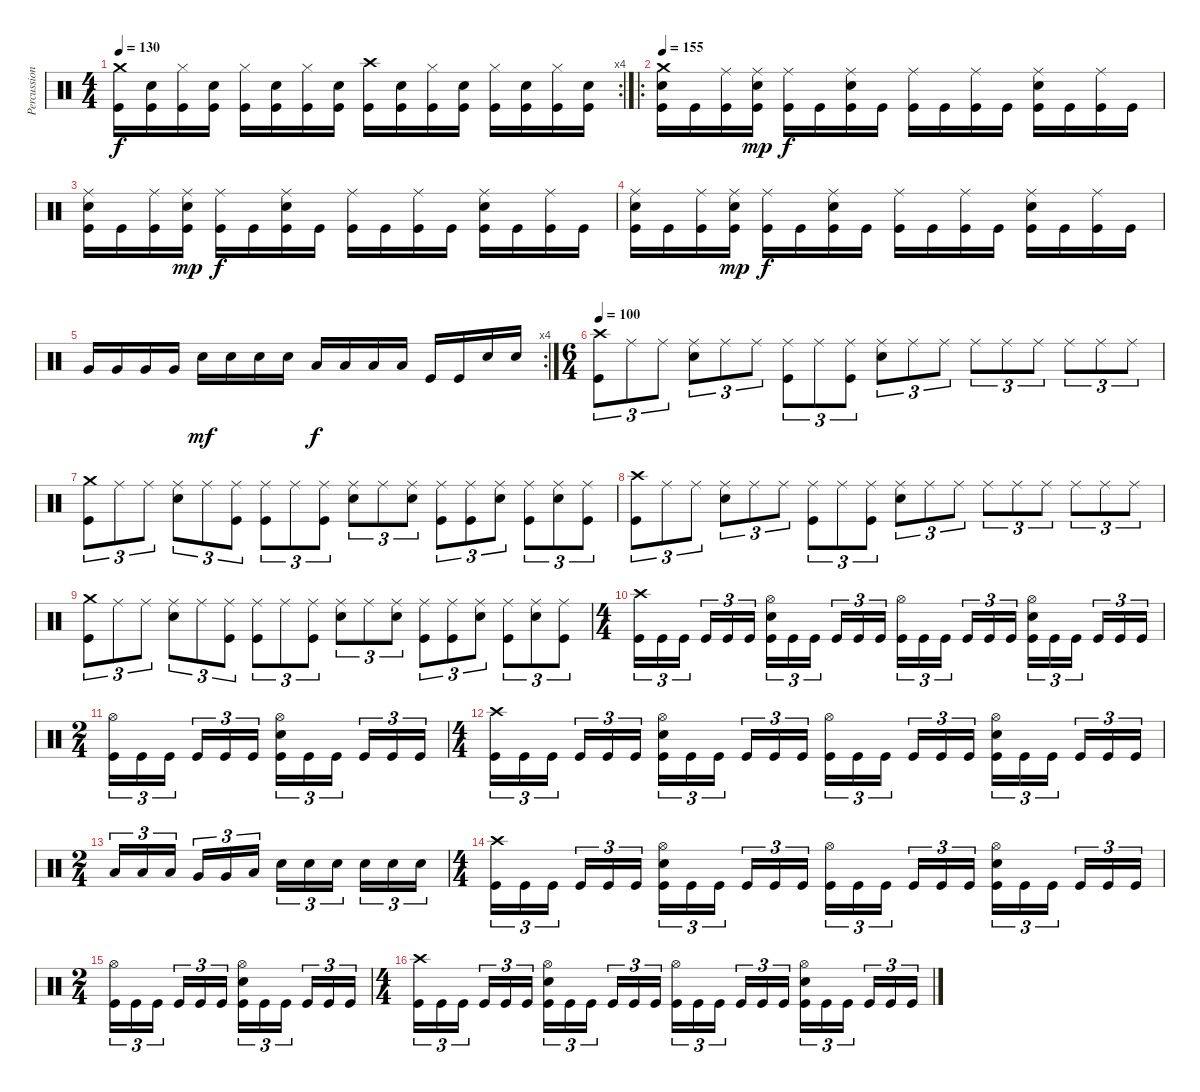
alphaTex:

\track ("Percussion" "Percussion") {instrument percussion}
\staff {score}
\articulation defaults
\rc 4
\ts (4 4)
\tempo 130
\clef neutral
\ks c
("Crash medium (hit)" "Kick (hit)").16{dy f} ("Kick (hit)" "Snare (hit) 2").16 ("Hi-Hat (closed)" "Kick (hit)").16 ("Kick (hit)" "Snare (hit) 2").16 ("Hi-Hat (closed)" "Kick (hit)").16 ("Kick (hit)" "Snare (hit) 2").16 ("Hi-Hat (closed)" "Kick (hit)").16 ("Kick (hit)" "Snare (hit) 2").16 ("Crash high (hit)" "Kick (hit)").16 ("Kick (hit)" "Snare (hit) 2").16 ("Hi-Hat (closed)" "Kick (hit)").16 ("Kick (hit)" "Snare (hit) 2").16 ("Hi-Hat (closed)" "Kick (hit)").16 ("Kick (hit)" "Snare (hit) 2").16 ("Hi-Hat (closed)" "Kick (hit)").16 ("Kick (hit)" "Snare (hit) 2").16 |
\ro
\tempo 155
("Crash medium (hit)" "Kick (hit)" "Snare (hit) 2").16 "Kick (hit)".16 ("Ride (middle)" "Kick (hit)").16 ("Ride (middle)" "Kick (hit)" "Snare (hit) 2").16{dy mp} ("Ride (middle)" "Kick (hit)").16{dy f} "Kick (hit)".16 ("Ride (middle)" "Kick (hit)" "Snare (hit) 2").16 "Kick (hit)".16 ("Ride (middle)" "Kick (hit)").16 "Kick (hit)".16 ("Ride (middle)" "Kick (hit)").16 "Kick (hit)".16 ("Ride (middle)" "Kick (hit)" "Snare (hit) 2").16 "Kick (hit)".16 ("Ride (middle)" "Kick (hit)").16 "Kick (hit)".16 |
("Ride (middle)" "Kick (hit)" "Snare (hit) 2").16 "Kick (hit)".16 ("Ride (middle)" "Kick (hit)").16 ("Ride (middle)" "Kick (hit)" "Snare (hit) 2").16{dy mp} ("Ride (middle)" "Kick (hit)").16{dy f} "Kick (hit)".16 ("Ride (middle)" "Kick (hit)" "Snare (hit) 2").16 "Kick (hit)".16 ("Ride (middle)" "Kick (hit)").16 "Kick (hit)".16 ("Ride (middle)" "Kick (hit)").16 "Kick (hit)".16 ("Ride (middle)" "Kick (hit)" "Snare (hit) 2").16 "Kick (hit)".16 ("Ride (middle)" "Kick (hit)").16 "Kick (hit)".16 |
("Ride (middle)" "Kick (hit)" "Snare (hit) 2").16 "Kick (hit)".16 ("Ride (middle)" "Kick (hit)").16 ("Ride (middle)" "Kick (hit)" "Snare (hit) 2").16{dy mp} ("Ride (middle)" "Kick (hit)").16{dy f} "Kick (hit)".16 ("Ride (middle)" "Kick (hit)" "Snare (hit) 2").16 "Kick (hit)".16 ("Ride (middle)" "Kick (hit)").16 "Kick (hit)".16 ("Ride (middle)" "Kick (hit)").16 "Kick (hit)".16 ("Ride (middle)" "Kick (hit)" "Snare (hit) 2").16 "Kick (hit)".16 ("Ride (middle)" "Kick (hit)").16 "Kick (hit)".16 |
\rc 4 "Very Low Tom (hit)".16 "Very Low Tom (hit)".16 "Very Low Tom (hit)".16 "Very Low Tom (hit)".16 "Snare (hit) 2".16{dy mf} "Snare (hit) 2".16 "Snare (hit) 2".16 "Snare (hit) 2".16 "Low Floor Tom (hit)".16{dy f} "Low Floor Tom (hit)".16 "Low Floor Tom (hit)".16 "Low Floor Tom (hit)".16 "Kick (hit)".16 "Kick (hit)".16 "Snare (hit) 2".16 "Snare (hit) 2".16
|
\ts (6 4)
\tempo 100
("Crash high (hit)" "Kick (hit)").8{tu (3 2)} "Ride (middle)".8{tu (3 2)} "Ride (middle)".8{tu (3 2)} ("Ride (middle)" "Snare (hit) 2").8{tu (3 2)} "Ride (middle)".8{tu (3 2)} "Ride (middle)".8{tu (3 2)} ("Ride (middle)" "Kick (hit)").8{tu (3 2)} "Ride (middle)".8{tu (3 2)} ("Ride (middle)" "Kick (hit)").8{tu (3 2)} ("Ride (middle)" "Snare (hit) 2").8{tu (3 2)} "Ride (middle)".8{tu (3 2)} "Ride (middle)".8{tu (3 2)} "Ride (middle)".8{tu (3 2)} "Ride (middle)".8{tu (3 2)} "Ride (middle)".8{tu (3 2)} "Ride (middle)".8{tu (3 2)} "Ride (middle)".8{tu (3 2)} "Ride (middle)".8{tu (3 2)} |
("Crash medium (hit)" "Kick (hit)").8{tu (3 2)} "Ride (middle)".8{tu (3 2)} "Ride (middle)".8{tu (3 2)} ("Ride (middle)" "Snare (hit) 2").8{tu (3 2)} "Ride (middle)".8{tu (3 2)} ("Ride (middle)" "Kick (hit)").8{tu (3 2)} ("Ride (middle)" "Kick (hit)").8{tu (3 2)} "Ride (middle)".8{tu (3 2)} ("Ride (middle)" "Kick (hit)").8{tu (3 2)} ("Ride (middle)" "Snare (hit) 2").8{tu (3 2)} "Ride (middle)".8{tu (3 2)} ("Ride (middle)" "Snare (hit) 2").8{tu (3 2)} ("Ride (middle)" "Kick (hit)").8{tu (3 2)} ("Ride (middle)" "Kick (hit)").8{tu (3 2)} ("Ride (middle)" "Snare (hit) 2").8{tu (3 2)} ("Ride (middle)" "Kick (hit)").8{tu (3 2)} ("Ride (middle)" "Snare (hit) 2").8{tu (3 2)} ("Ride (middle)" "Kick (hit)").8{tu (3 2)} |
("Crash high (hit)" "Kick (hit)").8{tu (3 2)} "Ride (middle)".8{tu (3 2)} "Ride (middle)".8{tu (3 2)} ("Ride (middle)" "Snare (hit) 2").8{tu (3 2)} "Ride (middle)".8{tu (3 2)} "Ride (middle)".8{tu (3 2)} ("Ride (middle)" "Kick (hit)").8{tu (3 2)} "Ride (middle)".8{tu (3 2)} ("Ride (middle)" "Kick (hit)").8{tu (3 2)} ("Ride (middle)" "Snare (hit) 2").8{tu (3 2)} "Ride (middle)".8{tu (3 2)} "Ride (middle)".8{tu (3 2)} "Ride (middle)".8{tu (3 2)} "Ride (middle)".8{tu (3 2)} "Ride (middle)".8{tu (3 2)} "Ride (middle)".8{tu (3 2)} "Ride (middle)".8{tu (3 2)} "Ride (middle)".8{tu (3 2)} |
("Crash medium (hit)" "Kick (hit)").8{tu (3 2)} "Ride (middle)".8{tu (3 2)} "Ride (middle)".8{tu (3 2)} ("Ride (middle)" "Snare (hit) 2").8{tu (3 2)} "Ride (middle)".8{tu (3 2)} ("Ride (middle)" "Kick (hit)").8{tu (3 2)} ("Ride (middle)" "Kick (hit)").8{tu (3 2)} "Ride (middle)".8{tu (3 2)} ("Ride (middle)" "Kick (hit)").8{tu (3 2)} ("Ride (middle)" "Snare (hit) 2").8{tu (3 2)} "Ride (middle)".8{tu (3 2)} ("Ride (middle)" "Snare (hit) 2").8{tu (3 2)} ("Ride (middle)" "Kick (hit)").8{tu (3 2)} ("Ride (middle)" "Kick (hit)").8{tu (3 2)} ("Ride (middle)" "Snare (hit) 2").8{tu (3 2)} ("Ride (middle)" "Kick (hit)").8{tu (3 2)} ("Ride (middle)" "Snare (hit) 2").8{tu (3 2)} ("Ride (middle)" "Kick (hit)").8{tu (3 2)} |
\ts (4 4)
("Crash high (hit)" "Kick (hit)").16{tu (3 2)} "Kick (hit)".16{tu (3 2)} "Kick (hit)".16{tu (3 2) beam splitsecondary} "Kick (hit)".16{tu (3 2)} "Kick (hit)".16{tu (3 2)} "Kick (hit)".16{tu (3 2)} ("Hi-Hat (open)" "Snare (hit) 2" "Kick (hit)").16{tu (3 2)} "Kick (hit)".16{tu (3 2)} "Kick (hit)".16{tu (3 2) beam splitsecondary} "Kick (hit)".16{tu (3 2)} "Kick (hit)".16{tu (3 2)} "Kick (hit)".16{tu (3 2)} ("Hi-Hat (open)" "Kick (hit)").16{tu (3 2)} "Kick (hit)".16{tu (3 2)} "Kick (hit)".16{tu (3 2) beam splitsecondary} "Kick (hit)".16{tu (3 2)} "Kick (hit)".16{tu (3 2)} "Kick (hit)".16{tu (3 2)} ("Hi-Hat (open)" "Snare (hit) 2" "Kick (hit)").16{tu (3 2)} "Kick (hit)".16{tu (3 2)} "Kick (hit)".16{tu (3 2) beam splitsecondary} "Kick (hit)".16{tu (3 2)} "Kick (hit)".16{tu (3 2)} "Kick (hit)".16{tu (3 2)} |
\ts (2 4)
("Hi-Hat (open)" "Kick (hit)").16{tu (3 2)} "Kick (hit)".16{tu (3 2)} "Kick (hit)".16{tu (3 2) beam splitsecondary} "Kick (hit)".16{tu (3 2)} "Kick (hit)".16{tu (3 2)} "Kick (hit)".16{tu (3 2)} ("Hi-Hat (open)" "Snare (hit) 2" "Kick (hit)").16{tu (3 2)} "Kick (hit)".16{tu (3 2)} "Kick (hit)".16{tu (3 2) beam splitsecondary} "Kick (hit)".16{tu (3 2)} "Kick (hit)".16{tu (3 2)} "Kick (hit)".16{tu (3 2)} |
\ts (4 4)
("Crash high (hit)" "Kick (hit)").16{tu (3 2)} "Kick (hit)".16{tu (3 2)} "Kick (hit)".16{tu (3 2) beam splitsecondary} "Kick (hit)".16{tu (3 2)} "Kick (hit)".16{tu (3 2)} "Kick (hit)".16{tu (3 2)} ("Hi-Hat (open)" "Snare (hit) 2" "Kick (hit)").16{tu (3 2)} "Kick (hit)".16{tu (3 2)} "Kick (hit)".16{tu (3 2) beam splitsecondary} "Kick (hit)".16{tu (3 2)} "Kick (hit)".16{tu (3 2)} "Kick (hit)".16{tu (3 2)} ("Hi-Hat (open)" "Kick (hit)").16{tu (3 2)} "Kick (hit)".16{tu (3 2)} "Kick (hit)".16{tu (3 2) beam splitsecondary} "Kick (hit)".16{tu (3 2)} "Kick (hit)".16{tu (3 2)} "Kick (hit)".16{tu (3 2)} ("Hi-Hat (open)" "Snare (hit) 2" "Kick (hit)").16{tu (3 2)} "Kick (hit)".16{tu (3 2)} "Kick (hit)".16{tu (3 2) beam splitsecondary} "Kick (hit)".16{tu (3 2)} "Kick (hit)".16{tu (3 2)} "Kick (hit)".16{tu (3 2)} |
\ts (2 4)
"Low Tom (hit)".16{tu (3 2)} "Low Tom (hit)".16{tu (3 2)} "Low Tom (hit)".16{tu (3 2) beam splitsecondary} "Very Low Tom (hit)".16{tu (3 2)} "Very Low Tom (hit)".16{tu (3 2)} "Low Floor Tom (hit)".16{tu (3 2)} "Snare (hit) 2".16{tu (3 2)} "Snare (hit) 2".16{tu (3 2)} "Snare (hit) 2".16{tu (3 2) beam splitsecondary} "Snare (hit) 2".16{tu (3 2)} "Snare (hit) 2".16{tu (3 2)} "Snare (hit) 2".16{tu (3 2)} |
\ts (4 4)
("Crash high (hit)" "Kick (hit)").16{tu (3 2)} "Kick (hit)".16{tu (3 2)} "Kick (hit)".16{tu (3 2) beam splitsecondary} "Kick (hit)".16{tu (3 2)} "Kick (hit)".16{tu (3 2)} "Kick (hit)".16{tu (3 2)} ("Hi-Hat (open)" "Snare (hit) 2" "Kick (hit)").16{tu (3 2)} "Kick (hit)".16{tu (3 2)} "Kick (hit)".16{tu (3 2) beam splitsecondary} "Kick (hit)".16{tu (3 2)} "Kick (hit)".16{tu (3 2)} "Kick (hit)".16{tu (3 2)} ("Hi-Hat (open)" "Kick (hit)").16{tu (3 2)} "Kick (hit)".16{tu (3 2)} "Kick (hit)".16{tu (3 2) beam splitsecondary} "Kick (hit)".16{tu (3 2)} "Kick (hit)".16{tu (3 2)} "Kick (hit)".16{tu (3 2)} ("Hi-Hat (open)" "Snare (hit) 2" "Kick (hit)").16{tu (3 2)} "Kick (hit)".16{tu (3 2)} "Kick (hit)".16{tu (3 2) beam splitsecondary} "Kick (hit)".16{tu (3 2)} "Kick (hit)".16{tu (3 2)} "Kick (hit)".16{tu (3 2)} |
\ts (2 4)
("Hi-Hat (open)" "Kick (hit)").16{tu (3 2)} "Kick (hit)".16{tu (3 2)} "Kick (hit)".16{tu (3 2) beam splitsecondary} "Kick (hit)".16{tu (3 2)} "Kick (hit)".16{tu (3 2)} "Kick (hit)".16{tu (3 2)} ("Hi-Hat (open)" "Snare (hit) 2" "Kick (hit)").16{tu (3 2)} "Kick (hit)".16{tu (3 2)} "Kick (hit)".16{tu (3 2) beam splitsecondary} "Kick (hit)".16{tu (3 2)} "Kick (hit)".16{tu (3 2)} "Kick (hit)".16{tu (3 2)} |
\ts (4 4)
("Crash high (hit)" "Kick (hit)").16{tu (3 2)} "Kick (hit)".16{tu (3 2)} "Kick (hit)".16{tu (3 2) beam splitsecondary} "Kick (hit)".16{tu (3 2)} "Kick (hit)".16{tu (3 2)} "Kick (hit)".16{tu (3 2)} ("Hi-Hat (open)" "Snare (hit) 2" "Kick (hit)").16{tu (3 2)} "Kick (hit)".16{tu (3 2)} "Kick (hit)".16{tu (3 2) beam splitsecondary} "Kick (hit)".16{tu (3 2)} "Kick (hit)".16{tu (3 2)} "Kick (hit)".16{tu (3 2)} ("Hi-Hat (open)" "Kick (hit)").16{tu (3 2)} "Kick (hit)".16{tu (3 2)} "Kick (hit)".16{tu (3 2) beam splitsecondary} "Kick (hit)".16{tu (3 2)} "Kick (hit)".16{tu (3 2)} "Kick (hit)".16{tu (3 2)} ("Hi-Hat (open)" "Snare (hit) 2" "Kick (hit)").16{tu (3 2)} "Kick (hit)".16{tu (3 2)} "Kick (hit)".16{tu (3 2) beam splitsecondary} "Kick (hit)".16{tu (3 2)} "Kick (hit)".16{tu (3 2)} "Kick (hit)".16{tu (3 2)}
